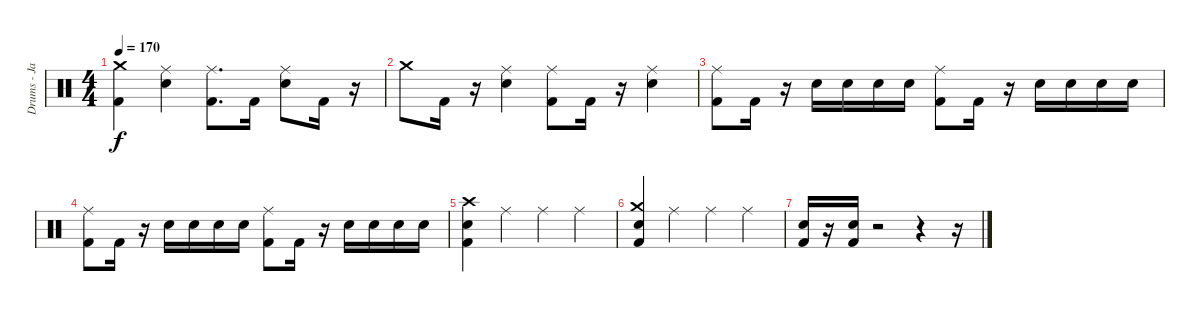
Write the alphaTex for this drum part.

\track ("Drums - Jasper Blazer" "Drums - Ja") {instrument percussion}
\staff {score}
\articulation defaults
\ts (4 4)
\tempo 170
\clef neutral
\ks c
("Kick (hit) 2" "Crash medium (hit)").4{dy f} ("Electric Snare (hit)" "Ride (middle)").4 ("Kick (hit) 2" "Ride (middle)").8{d} "Kick (hit) 2".16 ("Electric Snare (hit)" "Ride (middle)").8 "Kick (hit) 2".16 r.16 |
"Crash medium (hit)".8 "Kick (hit) 2".16 r.16 ("Electric Snare (hit)" "Ride (middle)").4 ("Kick (hit) 2" "Ride (middle)").8 "Kick (hit) 2".16 r.16 ("Electric Snare (hit)" "Ride (middle)").4 |
("Kick (hit) 2" "Ride (middle)").8 "Kick (hit) 2".16 r.16 "Electric Snare (hit)".16 "Electric Snare (hit)".16 "Electric Snare (hit)".16 "Electric Snare (hit)".16 ("Kick (hit) 2" "Ride (middle)").8 "Kick (hit) 2".16 r.16 "Electric Snare (hit)".16 "Electric Snare (hit)".16 "Electric Snare (hit)".16 "Electric Snare (hit)".16 |
("Kick (hit) 2" "Ride (middle)").8 "Kick (hit) 2".16 r.16 "Electric Snare (hit)".16 "Electric Snare (hit)".16 "Electric Snare (hit)".16 "Electric Snare (hit)".16 ("Kick (hit) 2" "Ride (middle)").8 "Kick (hit) 2".16 r.16 "Electric Snare (hit)".16 "Electric Snare (hit)".16 "Electric Snare (hit)".16 "Electric Snare (hit)".16 |
("Kick (hit) 2" "Electric Snare (hit)" "Crash high (hit)").4 "Ride (middle)".4 "Ride (middle)".4 "Ride (middle)".4 |
("Kick (hit) 2" "Electric Snare (hit)" "Crash medium (hit)").4 "Ride (middle)".4 "Ride (middle)".4 "Ride (middle)".4 |
("Kick (hit) 2" "Electric Snare (hit)").16 r.16 ("Kick (hit) 2" "Electric Snare (hit)").16 r.2 r.4 r.16
